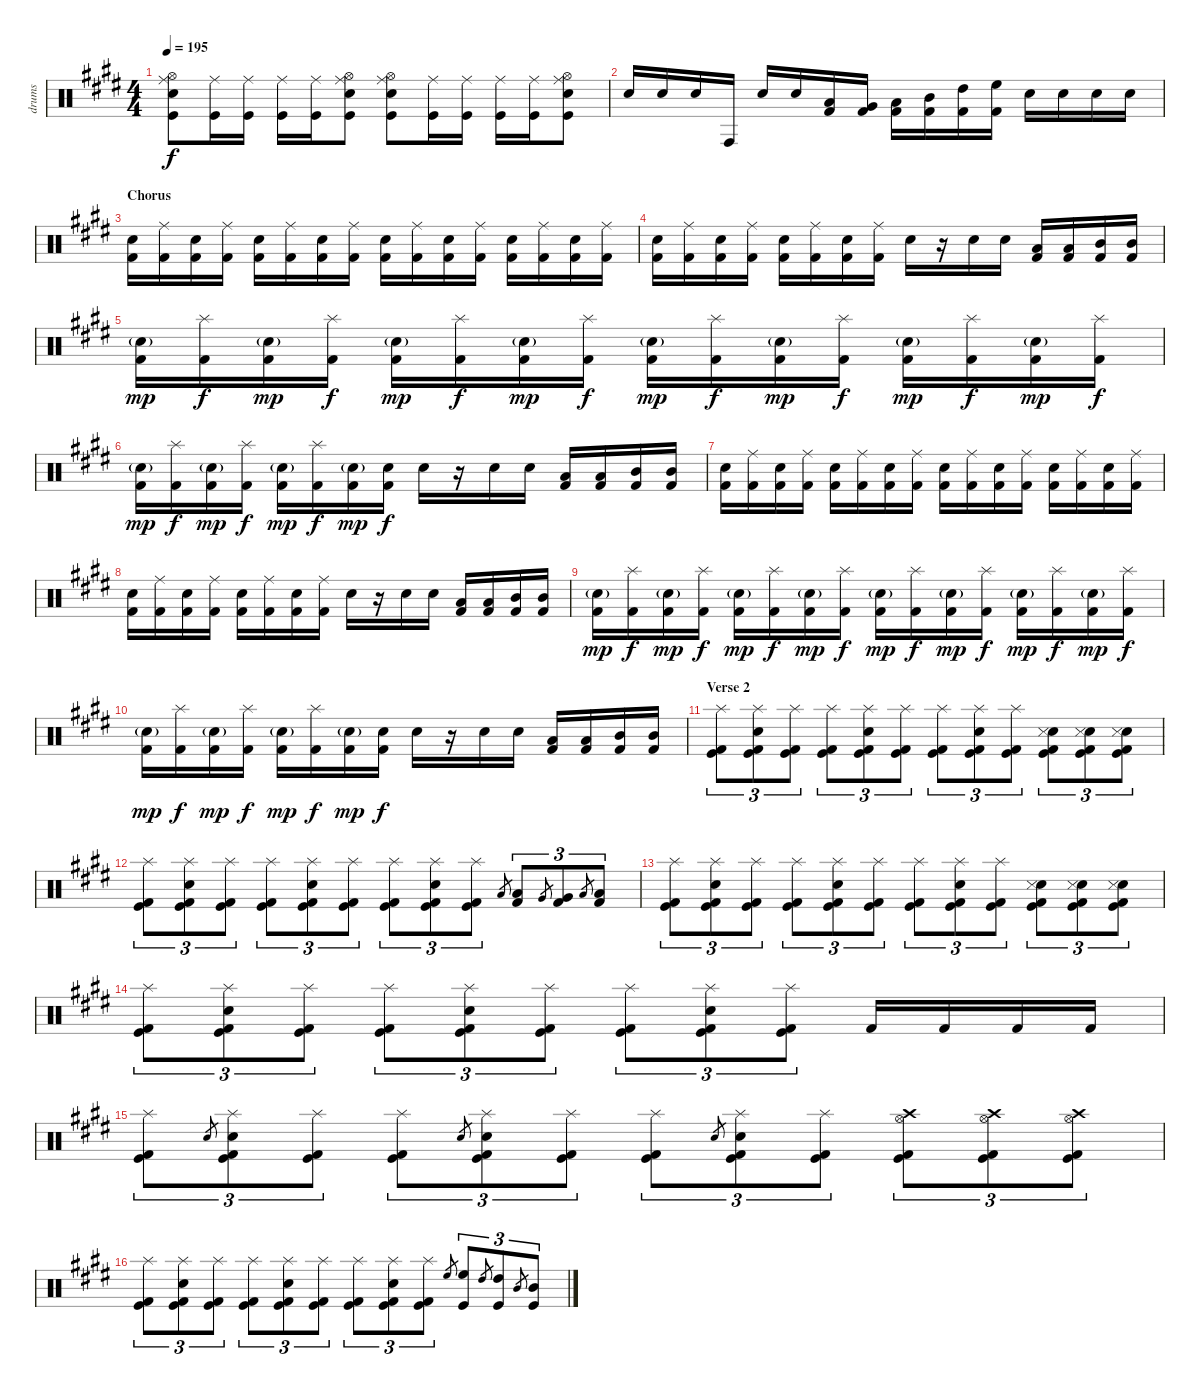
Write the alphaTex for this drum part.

\track ("drums" "drums") {instrument percussion}
\staff {score}
\articulation defaults
\ts (4 4)
\tempo 195
\clef neutral
\ks e
("Ride (middle)" "Electric Snare (hit)" "Hi-Hat (open)" "Kick (hit)").8{dy f} ("Ride (middle)" "Kick (hit)").16 ("Ride (middle)" "Kick (hit)").16 ("Ride (middle)" "Kick (hit)").16 ("Ride (middle)" "Kick (hit)").16 ("Ride (middle)" "Electric Snare (hit)" "Hi-Hat (open)" "Kick (hit)").8 ("Ride (middle)" "Electric Snare (hit)" "Hi-Hat (open)" "Kick (hit)").8 ("Ride (middle)" "Kick (hit)").16 ("Ride (middle)" "Kick (hit)").16 ("Ride (middle)" "Kick (hit)").16 ("Ride (middle)" "Kick (hit)").16 ("Ride (middle)" "Electric Snare (hit)" "Hi-Hat (open)" "Kick (hit)").8 |
"Electric Snare (hit)".16 "Electric Snare (hit)".16 "Electric Snare (hit)".16 "Conga high (hit)".16 "Electric Snare (hit)".16 "Electric Snare (hit)".16 ("Low Floor Tom (hit)" "Kick (hit) 2").16 ("Very Low Tom (hit)" "Kick (hit) 2").16 ("Low Tom (hit)" "Kick (hit) 2").16 ("Mid Tom (hit)" "Kick (hit) 2").16 ("High Tom (hit)" "Kick (hit) 2").16 ("High Floor Tom (hit)" "Kick (hit) 2").16 "Snare (hit) 2".16 "Snare (hit) 2".16 "Snare (hit) 2".16 "Snare (hit) 2".16 |
\section ("" "Chorus")
("Kick (hit) 2" "Electric Snare (hit)").16 ("Kick (hit) 2" "Ride (middle)").16 ("Kick (hit) 2" "Electric Snare (hit)").16 ("Kick (hit) 2" "Ride (middle)").16 ("Kick (hit) 2" "Electric Snare (hit)").16 ("Kick (hit) 2" "Ride (middle)").16 ("Kick (hit) 2" "Electric Snare (hit)").16 ("Kick (hit) 2" "Ride (middle)").16 ("Kick (hit) 2" "Electric Snare (hit)").16 ("Kick (hit) 2" "Ride (middle)").16 ("Kick (hit) 2" "Electric Snare (hit)").16 ("Kick (hit) 2" "Ride (middle)").16 ("Kick (hit) 2" "Electric Snare (hit)").16 ("Kick (hit) 2" "Ride (middle)").16 ("Kick (hit) 2" "Electric Snare (hit)").16 ("Kick (hit) 2" "Ride (middle)").16 |
("Kick (hit) 2" "Electric Snare (hit)").16 ("Kick (hit) 2" "Ride (middle)").16 ("Kick (hit) 2" "Electric Snare (hit)").16 ("Kick (hit) 2" "Ride (middle)").16 ("Kick (hit) 2" "Electric Snare (hit)").16 ("Kick (hit) 2" "Ride (middle)").16 ("Kick (hit) 2" "Electric Snare (hit)").16 ("Kick (hit) 2" "Ride (middle)").16 "Electric Snare (hit)".16 r.16 "Electric Snare (hit)".16 "Electric Snare (hit)".16 ("Low Tom (hit)" "Kick (hit) 2").16 ("Low Tom (hit)" "Kick (hit) 2").16 ("Mid Tom (hit)" "Kick (hit) 2").16 ("Mid Tom (hit)" "Kick (hit) 2").16 |
("Kick (hit) 2" "Electric Snare (hit)"{g}).16{dy mp} ("Kick (hit) 2" "Splash (hit)").16{dy f} ("Kick (hit) 2" "Electric Snare (hit)"{g}).16{dy mp} ("Kick (hit) 2" "Splash (hit)").16{dy f} ("Kick (hit) 2" "Electric Snare (hit)"{g}).16{dy mp} ("Kick (hit) 2" "Splash (hit)").16{dy f} ("Kick (hit) 2" "Electric Snare (hit)"{g}).16{dy mp} ("Kick (hit) 2" "Splash (hit)").16{dy f} ("Kick (hit) 2" "Electric Snare (hit)"{g}).16{dy mp} ("Kick (hit) 2" "Splash (hit)").16{dy f} ("Kick (hit) 2" "Electric Snare (hit)"{g}).16{dy mp} ("Kick (hit) 2" "Splash (hit)").16{dy f} ("Kick (hit) 2" "Electric Snare (hit)"{g}).16{dy mp} ("Kick (hit) 2" "Splash (hit)").16{dy f} ("Kick (hit) 2" "Electric Snare (hit)"{g}).16{dy mp} ("Kick (hit) 2" "Splash (hit)").16{dy f} |
("Kick (hit) 2" "Electric Snare (hit)"{g}).16{dy mp} ("Kick (hit) 2" "Splash (hit)").16{dy f} ("Kick (hit) 2" "Electric Snare (hit)"{g}).16{dy mp} ("Kick (hit) 2" "Splash (hit)").16{dy f} ("Kick (hit) 2" "Electric Snare (hit)"{g}).16{dy mp} ("Kick (hit) 2" "Splash (hit)").16{dy f} ("Kick (hit) 2" "Electric Snare (hit)"{g}).16{dy mp} ("Kick (hit) 2" "Snare (hit)").16{dy f} "Electric Snare (hit)".16 r.16 "Electric Snare (hit)".16 "Electric Snare (hit)".16 ("Low Tom (hit)" "Kick (hit) 2").16 ("Low Tom (hit)" "Kick (hit) 2").16 ("Mid Tom (hit)" "Kick (hit) 2").16 ("Mid Tom (hit)" "Kick (hit) 2").16 |
("Kick (hit) 2" "Electric Snare (hit)").16 ("Kick (hit) 2" "Ride (middle)").16 ("Kick (hit) 2" "Electric Snare (hit)").16 ("Kick (hit) 2" "Ride (middle)").16 ("Kick (hit) 2" "Electric Snare (hit)").16 ("Kick (hit) 2" "Ride (middle)").16 ("Kick (hit) 2" "Electric Snare (hit)").16 ("Kick (hit) 2" "Ride (middle)").16 ("Kick (hit) 2" "Electric Snare (hit)").16 ("Kick (hit) 2" "Ride (middle)").16 ("Kick (hit) 2" "Electric Snare (hit)").16 ("Kick (hit) 2" "Ride (middle)").16 ("Kick (hit) 2" "Electric Snare (hit)").16 ("Kick (hit) 2" "Ride (middle)").16 ("Kick (hit) 2" "Electric Snare (hit)").16 ("Kick (hit) 2" "Ride (middle)").16 |
("Kick (hit) 2" "Electric Snare (hit)").16 ("Kick (hit) 2" "Ride (middle)").16 ("Kick (hit) 2" "Electric Snare (hit)").16 ("Kick (hit) 2" "Ride (middle)").16 ("Kick (hit) 2" "Electric Snare (hit)").16 ("Kick (hit) 2" "Ride (middle)").16 ("Kick (hit) 2" "Electric Snare (hit)").16 ("Kick (hit) 2" "Ride (middle)").16 "Electric Snare (hit)".16 r.16 "Electric Snare (hit)".16 "Electric Snare (hit)".16 ("Low Tom (hit)" "Kick (hit) 2").16 ("Low Tom (hit)" "Kick (hit) 2").16 ("Mid Tom (hit)" "Kick (hit) 2").16 ("Mid Tom (hit)" "Kick (hit) 2").16 |
("Kick (hit) 2" "Electric Snare (hit)"{g}).16{dy mp} ("Kick (hit) 2" "Splash (hit)").16{dy f} ("Kick (hit) 2" "Electric Snare (hit)"{g}).16{dy mp} ("Kick (hit) 2" "Splash (hit)").16{dy f} ("Kick (hit) 2" "Electric Snare (hit)"{g}).16{dy mp} ("Kick (hit) 2" "Splash (hit)").16{dy f} ("Kick (hit) 2" "Electric Snare (hit)"{g}).16{dy mp} ("Kick (hit) 2" "Splash (hit)").16{dy f} ("Kick (hit) 2" "Electric Snare (hit)"{g}).16{dy mp} ("Kick (hit) 2" "Splash (hit)").16{dy f} ("Kick (hit) 2" "Electric Snare (hit)"{g}).16{dy mp} ("Kick (hit) 2" "Splash (hit)").16{dy f} ("Kick (hit) 2" "Electric Snare (hit)"{g}).16{dy mp} ("Kick (hit) 2" "Splash (hit)").16{dy f} ("Kick (hit) 2" "Electric Snare (hit)"{g}).16{dy mp} ("Kick (hit) 2" "Splash (hit)").16{dy f} |
("Kick (hit) 2" "Electric Snare (hit)"{g}).16{dy mp} ("Kick (hit) 2" "Splash (hit)").16{dy f} ("Kick (hit) 2" "Electric Snare (hit)"{g}).16{dy mp} ("Kick (hit) 2" "Splash (hit)").16{dy f} ("Kick (hit) 2" "Electric Snare (hit)"{g}).16{dy mp} ("Kick (hit) 2" "Splash (hit)").16{dy f} ("Kick (hit) 2" "Electric Snare (hit)"{g}).16{dy mp} ("Kick (hit) 2" "Snare (hit)").16{dy f} "Electric Snare (hit)".16 r.16 "Electric Snare (hit)".16 "Electric Snare (hit)".16 ("Low Tom (hit)" "Kick (hit) 2").16 ("Low Tom (hit)" "Kick (hit) 2").16 ("Mid Tom (hit)" "Kick (hit) 2").16 ("Mid Tom (hit)" "Kick (hit) 2").16 |
\section ("" "Verse 2")
("Kick (hit) 2" "Kick (hit)" "Splash (hit)").8{tu (3 2)} ("Kick (hit) 2" "Kick (hit)" "Splash (hit)" "Snare (hit) 2").8{tu (3 2)} ("Kick (hit) 2" "Kick (hit)" "Splash (hit)").8{tu (3 2)} ("Kick (hit) 2" "Kick (hit)" "Splash (hit)").8{tu (3 2)} ("Kick (hit) 2" "Kick (hit)" "Splash (hit)" "Snare (hit) 2").8{tu (3 2)} ("Kick (hit) 2" "Kick (hit)" "Splash (hit)").8{tu (3 2)} ("Kick (hit) 2" "Kick (hit)" "Splash (hit)").8{tu (3 2)} ("Kick (hit) 2" "Kick (hit)" "Splash (hit)" "Snare (hit) 2").8{tu (3 2)} ("Kick (hit) 2" "Kick (hit)" "Splash (hit)").8{tu (3 2)} ("Kick (hit) 2" "Kick (hit)" "Electric Snare (hit)" "Snare (side stick) 3").8{tu (3 2)} ("Kick (hit) 2" "Kick (hit)" "Electric Snare (hit)" "Snare (side stick) 3").8{tu (3 2)} ("Kick (hit) 2" "Kick (hit)" "Electric Snare (hit)" "Snare (side stick) 3").8{tu (3 2)} |
("Kick (hit) 2" "Kick (hit)" "Splash (hit)").8{tu (3 2)} ("Kick (hit) 2" "Kick (hit)" "Splash (hit)" "Snare (hit) 2").8{tu (3 2)} ("Kick (hit) 2" "Kick (hit)" "Splash (hit)").8{tu (3 2)} ("Kick (hit) 2" "Kick (hit)" "Splash (hit)").8{tu (3 2)} ("Kick (hit) 2" "Kick (hit)" "Splash (hit)" "Snare (hit) 2").8{tu (3 2)} ("Kick (hit) 2" "Kick (hit)" "Splash (hit)").8{tu (3 2)} ("Kick (hit) 2" "Kick (hit)" "Splash (hit)").8{tu (3 2)} ("Kick (hit) 2" "Kick (hit)" "Splash (hit)" "Snare (hit) 2").8{tu (3 2)} ("Kick (hit) 2" "Kick (hit)" "Splash (hit)").8{tu (3 2)} "Low Tom (hit)".8{gr} ("Low Tom (hit)" "Kick (hit) 2").8{tu (3 2)} "Very Low Tom (hit)".8{gr} ("Very Low Tom (hit)" "Kick (hit) 2").8{tu (3 2)} "Low Floor Tom (hit)".8{gr} ("Low Floor Tom (hit)" "Kick (hit) 2").8{tu (3 2)} |
("Kick (hit) 2" "Kick (hit)" "Splash (hit)").8{tu (3 2)} ("Kick (hit) 2" "Kick (hit)" "Splash (hit)" "Snare (hit) 2").8{tu (3 2)} ("Kick (hit) 2" "Kick (hit)" "Splash (hit)").8{tu (3 2)} ("Kick (hit) 2" "Kick (hit)" "Splash (hit)").8{tu (3 2)} ("Kick (hit) 2" "Kick (hit)" "Splash (hit)" "Snare (hit) 2").8{tu (3 2)} ("Kick (hit) 2" "Kick (hit)" "Splash (hit)").8{tu (3 2)} ("Kick (hit) 2" "Kick (hit)" "Splash (hit)").8{tu (3 2)} ("Kick (hit) 2" "Kick (hit)" "Splash (hit)" "Snare (hit) 2").8{tu (3 2)} ("Kick (hit) 2" "Kick (hit)" "Splash (hit)").8{tu (3 2)} ("Kick (hit) 2" "Kick (hit)" "Electric Snare (hit)" "Snare (side stick) 3").8{tu (3 2)} ("Kick (hit) 2" "Kick (hit)" "Electric Snare (hit)" "Snare (side stick) 3").8{tu (3 2)} ("Kick (hit) 2" "Kick (hit)" "Electric Snare (hit)" "Snare (side stick) 3").8{tu (3 2)} |
("Kick (hit) 2" "Kick (hit)" "Splash (hit)").8{tu (3 2)} ("Kick (hit) 2" "Kick (hit)" "Splash (hit)" "Snare (hit) 2").8{tu (3 2)} ("Kick (hit) 2" "Kick (hit)" "Splash (hit)").8{tu (3 2)} ("Kick (hit) 2" "Kick (hit)" "Splash (hit)").8{tu (3 2)} ("Kick (hit) 2" "Kick (hit)" "Splash (hit)" "Snare (hit) 2").8{tu (3 2)} ("Kick (hit) 2" "Kick (hit)" "Splash (hit)").8{tu (3 2)} ("Kick (hit) 2" "Kick (hit)" "Splash (hit)").8{tu (3 2)} ("Kick (hit) 2" "Kick (hit)" "Splash (hit)" "Snare (hit) 2").8{tu (3 2)} ("Kick (hit) 2" "Kick (hit)" "Splash (hit)").8{tu (3 2)} "Kick (hit) 2".16 "Kick (hit) 2".16 "Kick (hit) 2".16 "Kick (hit) 2".16 |
("Kick (hit) 2" "Kick (hit)" "Splash (hit)").8{tu (3 2)} "Snare (hit) 2".8{gr} ("Kick (hit) 2" "Kick (hit)" "Splash (hit)" "Snare (hit) 2").8{tu (3 2)} ("Kick (hit) 2" "Kick (hit)" "Splash (hit)").8{tu (3 2)} ("Kick (hit) 2" "Kick (hit)" "Splash (hit)").8{tu (3 2)} "Snare (hit) 2".8{gr} ("Kick (hit) 2" "Kick (hit)" "Splash (hit)" "Snare (hit) 2").8{tu (3 2)} ("Kick (hit) 2" "Kick (hit)" "Splash (hit)").8{tu (3 2)} ("Kick (hit) 2" "Kick (hit)" "Splash (hit)").8{tu (3 2)} "Snare (hit) 2".8{gr} ("Kick (hit) 2" "Kick (hit)" "Splash (hit)" "Snare (hit) 2").8{tu (3 2)} ("Kick (hit) 2" "Kick (hit)" "Splash (hit)").8{tu (3 2)} ("Kick (hit) 2" "Kick (hit)" "Crash high (hit)" "Hi-Hat (open)").8{tu (3 2)} ("Kick (hit) 2" "Kick (hit)" "Crash high (hit)" "Hi-Hat (open)").8{tu (3 2)} ("Kick (hit) 2" "Kick (hit)" "Crash high (hit)" "Hi-Hat (open)").8{tu (3 2)} |
("Kick (hit) 2" "Kick (hit)" "Splash (hit)").8{tu (3 2)} ("Kick (hit) 2" "Kick (hit)" "Splash (hit)" "Snare (hit) 2").8{tu (3 2)} ("Kick (hit) 2" "Kick (hit)" "Splash (hit)").8{tu (3 2)} ("Kick (hit) 2" "Kick (hit)" "Splash (hit)").8{tu (3 2)} ("Kick (hit) 2" "Kick (hit)" "Splash (hit)" "Snare (hit) 2").8{tu (3 2)} ("Kick (hit) 2" "Kick (hit)" "Splash (hit)").8{tu (3 2)} ("Kick (hit) 2" "Kick (hit)" "Splash (hit)").8{tu (3 2)} ("Kick (hit) 2" "Kick (hit)" "Splash (hit)" "Snare (hit) 2").8{tu (3 2)} ("Kick (hit) 2" "Kick (hit)" "Splash (hit)").8{tu (3 2)} "High Floor Tom (hit)".8{gr} ("High Floor Tom (hit)" "Kick (hit)").8{tu (3 2)} "High Tom (hit)".8{gr} ("High Tom (hit)" "Kick (hit)").8{tu (3 2)} "Mid Tom (hit)".8{gr} ("Mid Tom (hit)" "Kick (hit)").8{tu (3 2)}
